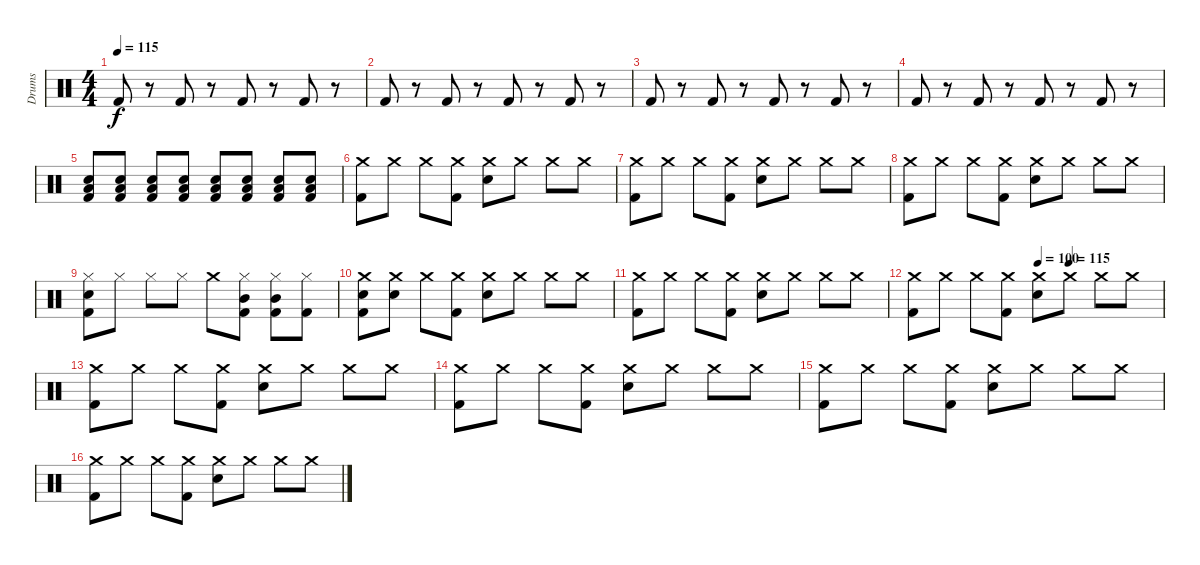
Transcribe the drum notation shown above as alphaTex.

\track ("Drums" "Drums") {instrument percussion}
\staff {score}
\articulation defaults
\ts (4 4)
\tempo 115
\clef neutral
\ks c "Kick (hit) 2".8{dy f}
r.8 "Kick (hit) 2".8 r.8 "Kick (hit) 2".8 r.8 "Kick (hit) 2".8 r.8 |
"Kick (hit) 2".8 r.8 "Kick (hit) 2".8 r.8 "Kick (hit) 2".8 r.8 "Kick (hit) 2".8 r.8 |
"Kick (hit) 2".8 r.8 "Kick (hit) 2".8 r.8 "Kick (hit) 2".8 r.8 "Kick (hit) 2".8 r.8 |
"Kick (hit) 2".8 r.8 "Kick (hit) 2".8 r.8 "Kick (hit) 2".8 r.8 "Kick (hit) 2".8 r.8 |
("Kick (hit) 2" "Electric Snare (hit)" "Low Tom (hit)").8 ("Kick (hit) 2" "Electric Snare (hit)" "Low Tom (hit)").8 ("Kick (hit) 2" "Electric Snare (hit)" "Low Tom (hit)").8 ("Kick (hit) 2" "Electric Snare (hit)" "Low Tom (hit)").8 ("Kick (hit) 2" "Electric Snare (hit)" "Low Tom (hit)").8 ("Kick (hit) 2" "Electric Snare (hit)" "Low Tom (hit)").8 ("Kick (hit) 2" "Electric Snare (hit)" "Low Tom (hit)").8 ("Kick (hit) 2" "Electric Snare (hit)" "Low Tom (hit)").8 |
("Kick (hit) 2" "Crash medium (hit)").8 "Crash medium (hit)".8 "Crash medium (hit)".8 ("Kick (hit) 2" "Crash medium (hit)").8 ("Electric Snare (hit)" "Crash medium (hit)").8 "Crash medium (hit)".8 "Crash medium (hit)".8 "Crash medium (hit)".8 |
("Kick (hit) 2" "Crash medium (hit)").8 "Crash medium (hit)".8 "Crash medium (hit)".8 ("Kick (hit) 2" "Crash medium (hit)").8 ("Electric Snare (hit)" "Crash medium (hit)").8 "Crash medium (hit)".8 "Crash medium (hit)".8 "Crash medium (hit)".8 |
("Kick (hit) 2" "Crash medium (hit)").8 "Crash medium (hit)".8 "Crash medium (hit)".8 ("Kick (hit) 2" "Crash medium (hit)").8 ("Electric Snare (hit)" "Crash medium (hit)").8 "Crash medium (hit)".8 "Crash medium (hit)".8 "Crash medium (hit)".8 |
("Kick (hit) 2" "Electric Snare (hit)" "Hi-Hat (closed)").8 "Hi-Hat (closed)".8 "Hi-Hat (closed)".8 "Hi-Hat (closed)".8 "Crash medium (hit)".8 ("Kick (hit) 2" "Hi-Hat (closed)" "Mid Tom (hit)").8 ("Kick (hit) 2" "Hi-Hat (closed)" "Mid Tom (hit)").8 ("Kick (hit) 2" "Hi-Hat (closed)").8 |
("Kick (hit) 2" "Electric Snare (hit)" "Crash medium (hit)").8 ("Electric Snare (hit)" "Crash medium (hit)").8 "Crash medium (hit)".8 ("Kick (hit) 2" "Crash medium (hit)").8 ("Electric Snare (hit)" "Crash medium (hit)").8 "Crash medium (hit)".8 "Crash medium (hit)".8 "Crash medium (hit)".8 |
("Kick (hit) 2" "Crash medium (hit)").8 "Crash medium (hit)".8 "Crash medium (hit)".8 ("Kick (hit) 2" "Crash medium (hit)").8 ("Electric Snare (hit)" "Crash medium (hit)").8 "Crash medium (hit)".8 "Crash medium (hit)".8 "Crash medium (hit)".8 |
\tempo (100 0.5)
\tempo (115 0.625)
("Kick (hit) 2" "Crash medium (hit)").8 "Crash medium (hit)".8 "Crash medium (hit)".8 ("Kick (hit) 2" "Crash medium (hit)").8 ("Electric Snare (hit)" "Crash medium (hit)").8 "Crash medium (hit)".8 "Crash medium (hit)".8 "Crash medium (hit)".8 |
("Kick (hit) 2" "Crash medium (hit)").8 "Crash medium (hit)".8 "Crash medium (hit)".8 ("Kick (hit) 2" "Crash medium (hit)").8 ("Electric Snare (hit)" "Crash medium (hit)").8 "Crash medium (hit)".8 "Crash medium (hit)".8 "Crash medium (hit)".8 |
("Kick (hit) 2" "Crash medium (hit)").8 "Crash medium (hit)".8 "Crash medium (hit)".8 ("Kick (hit) 2" "Crash medium (hit)").8 ("Electric Snare (hit)" "Crash medium (hit)").8 "Crash medium (hit)".8 "Crash medium (hit)".8 "Crash medium (hit)".8 |
("Kick (hit) 2" "Crash medium (hit)").8 "Crash medium (hit)".8 "Crash medium (hit)".8 ("Kick (hit) 2" "Crash medium (hit)").8 ("Electric Snare (hit)" "Crash medium (hit)").8 "Crash medium (hit)".8 "Crash medium (hit)".8 "Crash medium (hit)".8 |
("Kick (hit) 2" "Crash medium (hit)").8 "Crash medium (hit)".8 "Crash medium (hit)".8 ("Kick (hit) 2" "Crash medium (hit)").8 ("Electric Snare (hit)" "Crash medium (hit)").8 "Crash medium (hit)".8 "Crash medium (hit)".8 "Crash medium (hit)".8
